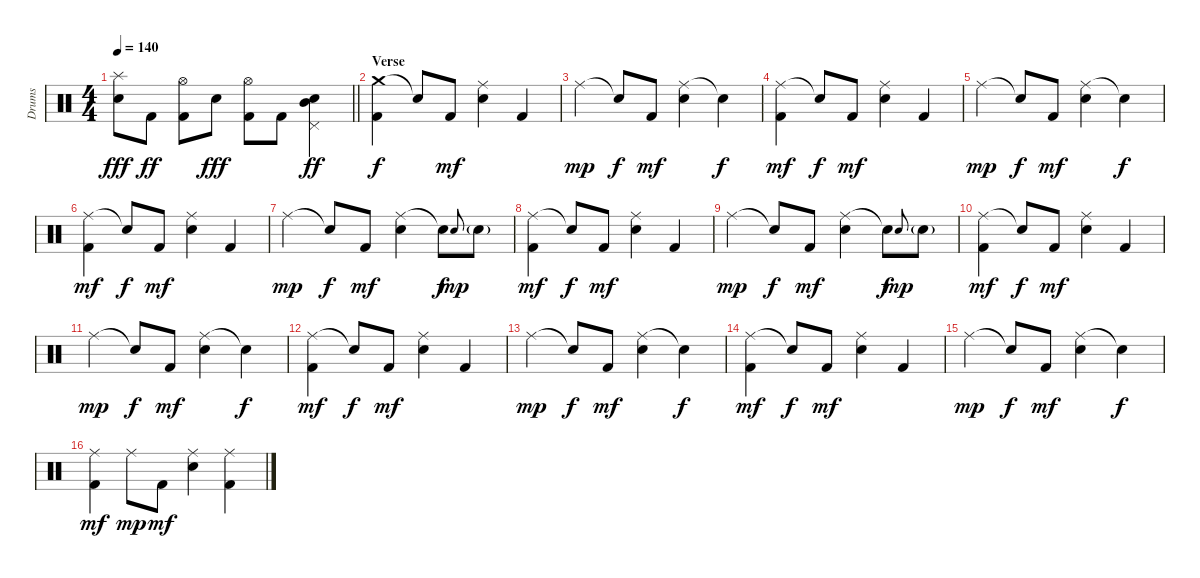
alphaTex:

\track ("Drums" "Drums") {instrument percussion}
\staff {score}
\articulation defaults
\ts (4 4)
\tempo 140
\clef neutral
\barLineRight lightlight
\ks c
("Splash (hit)" "Snare (hit) 2").8{dy fff} "Kick (hit) 2".8{dy ff} ("Hi-Hat (open)" "Kick (hit) 2").8 "Snare (hit) 2".8{dy fff} ("Hi-Hat (open)" "Kick (hit) 2").8 "Kick (hit) 2".8 ("Pedal Hi-Hat (hit)" "Snare (hit) 2" "Mid Tom (hit)").4{dy ff} |
\section ("" "Verse")
("Crash medium (hit)" "Kick (hit) 2").4{dy f} "Snare (hit)"{t}.8 "Kick (hit) 2".8{dy mf} ("Ride (middle)" "Snare (hit) 2").4 "Kick (hit) 2".4 |
"Ride (middle)".4{dy mp} "Snare (hit)"{t}.8{dy f} "Kick (hit) 2".8{dy mf} ("Ride (middle)" "Snare (hit) 2").4 "Snare (hit)"{t}.4{dy f} |
("Ride (middle)" "Kick (hit) 2").4{dy mf} "Snare (hit)"{t}.8{dy f} "Kick (hit) 2".8{dy mf} ("Ride (middle)" "Snare (hit) 2").4 "Kick (hit) 2".4 |
"Ride (middle)".4{dy mp} "Snare (hit)"{t}.8{dy f} "Kick (hit) 2".8{dy mf} ("Ride (middle)" "Snare (hit) 2").4 "Snare (hit)"{t}.4{dy f} |
("Ride (middle)" "Kick (hit) 2").4{dy mf} "Snare (hit)"{t}.8{dy f} "Kick (hit) 2".8{dy mf} ("Ride (middle)" "Snare (hit) 2").4 "Kick (hit) 2".4 |
"Ride (middle)".4{dy mp} "Snare (hit)"{t}.8{dy f} "Kick (hit) 2".8{dy mf} ("Ride (middle)" "Snare (hit) 2").4 "Snare (hit)"{t}.8{dy f} "Snare (hit) 2".8{gr onbeat dy mp} "Snare (hit) 2"{g}.8 |
("Ride (middle)" "Kick (hit) 2").4{dy mf} "Snare (hit)"{t}.8{dy f} "Kick (hit) 2".8{dy mf} ("Ride (middle)" "Snare (hit) 2").4 "Kick (hit) 2".4 |
"Ride (middle)".4{dy mp} "Snare (hit)"{t}.8{dy f} "Kick (hit) 2".8{dy mf} ("Ride (middle)" "Snare (hit) 2").4 "Snare (hit)"{t}.8{dy f} "Snare (hit) 2".8{gr onbeat dy mp} "Snare (hit) 2"{g}.8 |
("Ride (middle)" "Kick (hit) 2").4{dy mf} "Snare (hit)"{t}.8{dy f} "Kick (hit) 2".8{dy mf} ("Ride (middle)" "Snare (hit) 2").4 "Kick (hit) 2".4 |
"Ride (middle)".4{dy mp} "Snare (hit)"{t}.8{dy f} "Kick (hit) 2".8{dy mf} ("Ride (middle)" "Snare (hit) 2").4 "Snare (hit)"{t}.4{dy f} |
("Ride (middle)" "Kick (hit) 2").4{dy mf} "Snare (hit)"{t}.8{dy f} "Kick (hit) 2".8{dy mf} ("Ride (middle)" "Snare (hit) 2").4 "Kick (hit) 2".4 |
"Ride (middle)".4{dy mp} "Snare (hit)"{t}.8{dy f} "Kick (hit) 2".8{dy mf} ("Ride (middle)" "Snare (hit) 2").4 "Snare (hit)"{t}.4{dy f} |
("Ride (middle)" "Kick (hit) 2").4{dy mf} "Snare (hit)"{t}.8{dy f} "Kick (hit) 2".8{dy mf} ("Ride (middle)" "Snare (hit) 2").4 "Kick (hit) 2".4 |
"Ride (middle)".4{dy mp} "Snare (hit)"{t}.8{dy f} "Kick (hit) 2".8{dy mf} ("Ride (middle)" "Snare (hit) 2").4 "Snare (hit)"{t}.4{dy f} |
("Ride (middle)" "Kick (hit) 2").4{dy mf} "Ride (middle)".8{dy mp} "Kick (hit) 2".8{dy mf} ("Ride (middle)" "Snare (hit) 2").4 ("Ride (middle)" "Kick (hit) 2").4
